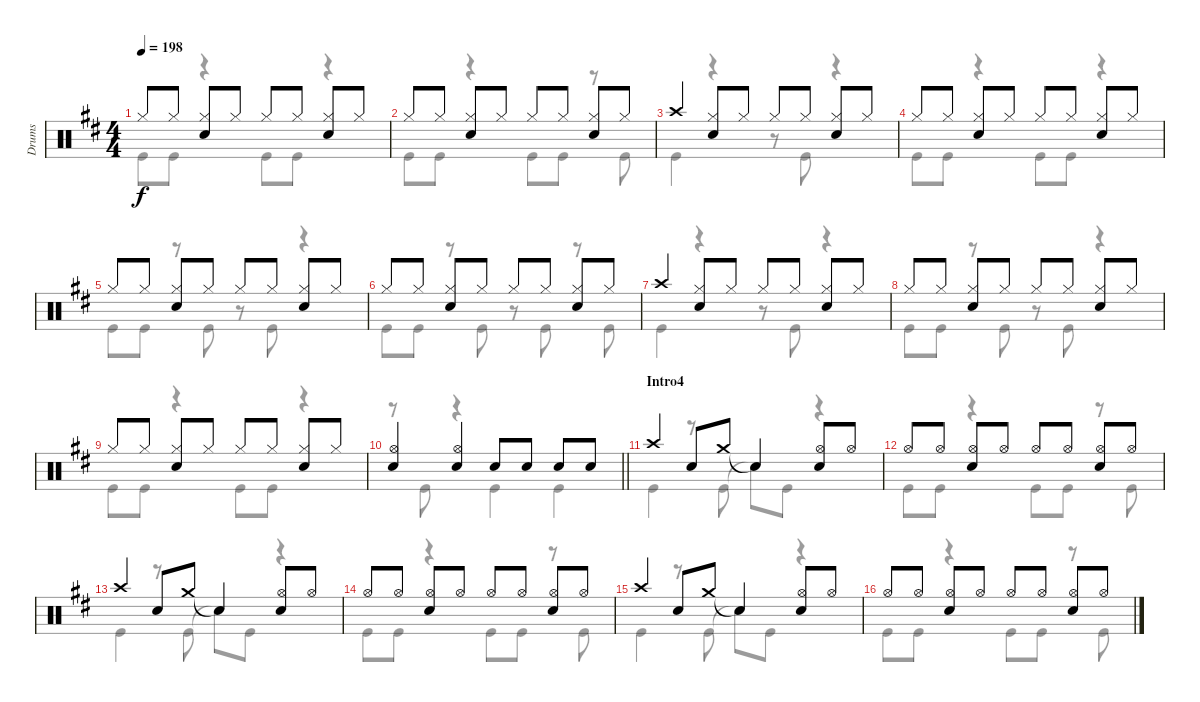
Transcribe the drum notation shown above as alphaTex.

\track ("Drums" "Drums") {instrument percussion}
\staff {score}
\articulation defaults
\voice
\ts (4 4)
\tempo 198
\clef neutral
\ks d "Hi-Hat (closed)".8{dy f} "Hi-Hat (closed)".8
("Hi-Hat (closed)" "Snare (hit) 2").8 "Hi-Hat (closed)".8 "Hi-Hat (closed)".8 "Hi-Hat (closed)".8 ("Hi-Hat (closed)" "Snare (hit) 2").8 "Hi-Hat (closed)".8 |
"Hi-Hat (closed)".8 "Hi-Hat (closed)".8 ("Hi-Hat (closed)" "Snare (hit) 2").8 "Hi-Hat (closed)".8 "Hi-Hat (closed)".8 "Hi-Hat (closed)".8 ("Hi-Hat (closed)" "Snare (hit) 2").8 "Hi-Hat (closed)".8 |
"Crash high (hit)".4 ("Hi-Hat (closed)" "Snare (hit) 2").8 "Hi-Hat (closed)".8 "Hi-Hat (closed)".8 "Hi-Hat (closed)".8 ("Hi-Hat (closed)" "Snare (hit) 2").8 "Hi-Hat (closed)".8 |
"Hi-Hat (closed)".8 "Hi-Hat (closed)".8 ("Hi-Hat (closed)" "Snare (hit) 2").8 "Hi-Hat (closed)".8 "Hi-Hat (closed)".8 "Hi-Hat (closed)".8 ("Hi-Hat (closed)" "Snare (hit) 2").8 "Hi-Hat (closed)".8 |
"Hi-Hat (closed)".8 "Hi-Hat (closed)".8 ("Hi-Hat (closed)" "Snare (hit) 2").8 "Hi-Hat (closed)".8 "Hi-Hat (closed)".8 "Hi-Hat (closed)".8 ("Hi-Hat (closed)" "Snare (hit) 2").8 "Hi-Hat (closed)".8 |
"Hi-Hat (closed)".8 "Hi-Hat (closed)".8 ("Hi-Hat (closed)" "Snare (hit) 2").8 "Hi-Hat (closed)".8 "Hi-Hat (closed)".8 "Hi-Hat (closed)".8 ("Hi-Hat (closed)" "Snare (hit) 2").8 "Hi-Hat (closed)".8 |
"Crash high (hit)".4 ("Hi-Hat (closed)" "Snare (hit) 2").8 "Hi-Hat (closed)".8 "Hi-Hat (closed)".8 "Hi-Hat (closed)".8 ("Hi-Hat (closed)" "Snare (hit) 2").8 "Hi-Hat (closed)".8 |
"Hi-Hat (closed)".8 "Hi-Hat (closed)".8 ("Hi-Hat (closed)" "Snare (hit) 2").8 "Hi-Hat (closed)".8 "Hi-Hat (closed)".8 "Hi-Hat (closed)".8 ("Hi-Hat (closed)" "Snare (hit) 2").8 "Hi-Hat (closed)".8 |
"Hi-Hat (closed)".8 "Hi-Hat (closed)".8 ("Hi-Hat (closed)" "Snare (hit) 2").8 "Hi-Hat (closed)".8 "Hi-Hat (closed)".8 "Hi-Hat (closed)".8 ("Hi-Hat (closed)" "Snare (hit) 2").8 "Hi-Hat (closed)".8 |
\barLineRight lightlight
("Hi-Hat (open)" "Snare (hit) 2").4 ("Hi-Hat (open)" "Snare (hit) 2").4 "Snare (hit) 2".8 "Snare (hit) 2".8 "Snare (hit) 2".8 "Snare (hit) 2".8 |
\section ("" "Intro4")
"Crash high (hit)".4 "Snare (hit) 2".8 "Crash medium (hit)".8 "Snare (hit)"{t}.4 ("Hi-Hat (open)" "Snare (hit) 2").8 "Hi-Hat (open)".8 |
"Hi-Hat (open)".8 "Hi-Hat (open)".8 ("Hi-Hat (open)" "Snare (hit) 2").8 "Hi-Hat (open)".8 "Hi-Hat (open)".8 "Hi-Hat (open)".8 ("Hi-Hat (open)" "Snare (hit) 2").8 "Hi-Hat (open)".8 |
"Crash high (hit)".4 "Snare (hit) 2".8 "Crash medium (hit)".8 "Snare (hit)"{t}.4 ("Hi-Hat (open)" "Snare (hit) 2").8 "Hi-Hat (open)".8 |
"Hi-Hat (open)".8 "Hi-Hat (open)".8 ("Hi-Hat (open)" "Snare (hit) 2").8 "Hi-Hat (open)".8 "Hi-Hat (open)".8 "Hi-Hat (open)".8 ("Hi-Hat (open)" "Snare (hit) 2").8 "Hi-Hat (open)".8 |
"Crash high (hit)".4 "Snare (hit) 2".8 "Crash medium (hit)".8 "Snare (hit)"{t}.4 ("Hi-Hat (open)" "Snare (hit) 2").8 "Hi-Hat (open)".8 |
"Hi-Hat (open)".8 "Hi-Hat (open)".8 ("Hi-Hat (open)" "Snare (hit) 2").8 "Hi-Hat (open)".8 "Hi-Hat (open)".8 "Hi-Hat (open)".8 ("Hi-Hat (open)" "Snare (hit) 2").8 "Hi-Hat (open)".8
\voice
\clef neutral
\ottava regular
\simile none
\ks d "Kick (hit)".8{dy f} "Kick (hit)".8
r.4 "Kick (hit)".8 "Kick (hit)".8 r.4 |
"Kick (hit)".8 "Kick (hit)".8 r.4 "Kick (hit)".8 "Kick (hit)".8 r.8 "Kick (hit)".8 |
"Kick (hit)".4 r.4 r.8 "Kick (hit)".8 r.4 |
"Kick (hit)".8 "Kick (hit)".8 r.4 "Kick (hit)".8 "Kick (hit)".8 r.4 |
"Kick (hit)".8 "Kick (hit)".8 r.8 "Kick (hit)".8 r.8 "Kick (hit)".8 r.4 |
"Kick (hit)".8 "Kick (hit)".8 r.8 "Kick (hit)".8 r.8 "Kick (hit)".8 r.8 "Kick (hit)".8 |
"Kick (hit)".4 r.4 r.8 "Kick (hit)".8 r.4 |
"Kick (hit)".8 "Kick (hit)".8 r.8 "Kick (hit)".8 r.8 "Kick (hit)".8 r.4 |
"Kick (hit)".8 "Kick (hit)".8 r.4 "Kick (hit)".8 "Kick (hit)".8 r.4 |
\barLineRight lightlight
r.8 "Kick (hit)".8 r.4 "Kick (hit)".4 "Kick (hit)".4 |
"Kick (hit)".4 r.8 "Kick (hit)".8 "Snare (hit)"{t}.8 "Kick (hit)".8 r.4 |
"Kick (hit)".8 "Kick (hit)".8 r.4 "Kick (hit)".8 "Kick (hit)".8 r.8 "Kick (hit)".8 |
"Kick (hit)".4 r.8 "Kick (hit)".8 "Snare (hit)"{t}.8 "Kick (hit)".8 r.4 |
"Kick (hit)".8 "Kick (hit)".8 r.4 "Kick (hit)".8 "Kick (hit)".8 r.8 "Kick (hit)".8 |
"Kick (hit)".4 r.8 "Kick (hit)".8 "Snare (hit)"{t}.8 "Kick (hit)".8 r.4 |
"Kick (hit)".8 "Kick (hit)".8 r.4 "Kick (hit)".8 "Kick (hit)".8 r.8 "Kick (hit)".8
